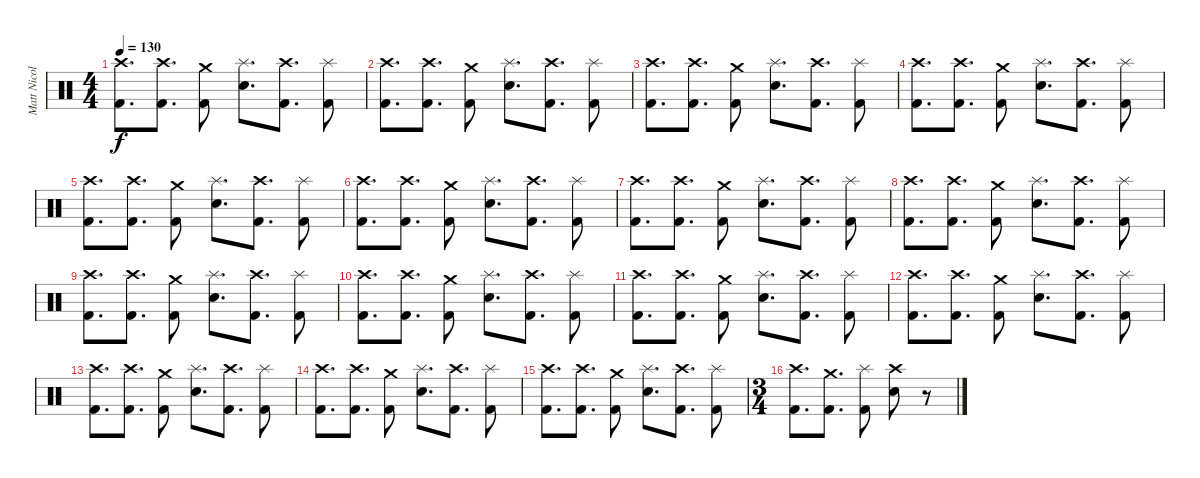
\track ("Matt Nicols" "Matt Nicol") {instrument percussion}
\staff {score}
\articulation defaults
\ts (4 4)
\tempo 130
\clef neutral
\ks c
("Crash high (hit)" "Kick (hit) 2").8{d dy f} ("Crash high (hit)" "Kick (hit) 2").8{d} ("Crash medium (hit)" "Kick (hit) 2").8 ("Splash (hit)" "Snare (hit) 2").8{d} ("Kick (hit) 2" "Crash high (hit)").8{d} ("Splash (hit)" "Kick (hit) 2").8 |
("Crash high (hit)" "Kick (hit) 2").8{d} ("Crash high (hit)" "Kick (hit) 2").8{d} ("Crash medium (hit)" "Kick (hit) 2").8 ("Splash (hit)" "Snare (hit) 2").8{d} ("Kick (hit) 2" "Crash high (hit)").8{d} ("Splash (hit)" "Kick (hit) 2").8 |
("Crash high (hit)" "Kick (hit) 2").8{d} ("Crash high (hit)" "Kick (hit) 2").8{d} ("Crash medium (hit)" "Kick (hit) 2").8 ("Splash (hit)" "Snare (hit) 2").8{d} ("Kick (hit) 2" "Crash high (hit)").8{d} ("Splash (hit)" "Kick (hit) 2").8 |
("Crash high (hit)" "Kick (hit) 2").8{d} ("Crash high (hit)" "Kick (hit) 2").8{d} ("Crash medium (hit)" "Kick (hit) 2").8 ("Splash (hit)" "Snare (hit) 2").8{d} ("Kick (hit) 2" "Crash high (hit)").8{d} ("Splash (hit)" "Kick (hit) 2").8 |
("Crash high (hit)" "Kick (hit) 2").8{d} ("Crash high (hit)" "Kick (hit) 2").8{d} ("Crash medium (hit)" "Kick (hit) 2").8 ("Splash (hit)" "Snare (hit) 2").8{d} ("Kick (hit) 2" "Crash high (hit)").8{d} ("Splash (hit)" "Kick (hit) 2").8 |
("Crash high (hit)" "Kick (hit) 2").8{d} ("Crash high (hit)" "Kick (hit) 2").8{d} ("Crash medium (hit)" "Kick (hit) 2").8 ("Splash (hit)" "Snare (hit) 2").8{d} ("Kick (hit) 2" "Crash high (hit)").8{d} ("Splash (hit)" "Kick (hit) 2").8 |
("Crash high (hit)" "Kick (hit) 2").8{d} ("Crash high (hit)" "Kick (hit) 2").8{d} ("Crash medium (hit)" "Kick (hit) 2").8 ("Splash (hit)" "Snare (hit) 2").8{d} ("Kick (hit) 2" "Crash high (hit)").8{d} ("Splash (hit)" "Kick (hit) 2").8 |
("Crash high (hit)" "Kick (hit) 2").8{d} ("Crash high (hit)" "Kick (hit) 2").8{d} ("Crash medium (hit)" "Kick (hit) 2").8 ("Splash (hit)" "Snare (hit) 2").8{d} ("Kick (hit) 2" "Crash high (hit)").8{d} ("Splash (hit)" "Kick (hit) 2").8 |
("Crash high (hit)" "Kick (hit) 2").8{d} ("Crash high (hit)" "Kick (hit) 2").8{d} ("Crash medium (hit)" "Kick (hit) 2").8 ("Splash (hit)" "Snare (hit) 2").8{d} ("Kick (hit) 2" "Crash high (hit)").8{d} ("Splash (hit)" "Kick (hit) 2").8 |
("Crash high (hit)" "Kick (hit) 2").8{d} ("Crash high (hit)" "Kick (hit) 2").8{d} ("Crash medium (hit)" "Kick (hit) 2").8 ("Splash (hit)" "Snare (hit) 2").8{d} ("Kick (hit) 2" "Crash high (hit)").8{d} ("Splash (hit)" "Kick (hit) 2").8 |
("Crash high (hit)" "Kick (hit) 2").8{d} ("Crash high (hit)" "Kick (hit) 2").8{d} ("Crash medium (hit)" "Kick (hit) 2").8 ("Splash (hit)" "Snare (hit) 2").8{d} ("Kick (hit) 2" "Crash high (hit)").8{d} ("Splash (hit)" "Kick (hit) 2").8 |
("Crash high (hit)" "Kick (hit) 2").8{d} ("Crash high (hit)" "Kick (hit) 2").8{d} ("Crash medium (hit)" "Kick (hit) 2").8 ("Splash (hit)" "Snare (hit) 2").8{d} ("Kick (hit) 2" "Crash high (hit)").8{d} ("Splash (hit)" "Kick (hit) 2").8 |
("Crash high (hit)" "Kick (hit) 2").8{d} ("Crash high (hit)" "Kick (hit) 2").8{d} ("Crash medium (hit)" "Kick (hit) 2").8 ("Splash (hit)" "Snare (hit) 2").8{d} ("Kick (hit) 2" "Crash high (hit)").8{d} ("Splash (hit)" "Kick (hit) 2").8 |
("Crash high (hit)" "Kick (hit) 2").8{d} ("Crash high (hit)" "Kick (hit) 2").8{d} ("Crash medium (hit)" "Kick (hit) 2").8 ("Splash (hit)" "Snare (hit) 2").8{d} ("Kick (hit) 2" "Crash high (hit)").8{d} ("Splash (hit)" "Kick (hit) 2").8 |
("Crash high (hit)" "Kick (hit) 2").8{d} ("Crash high (hit)" "Kick (hit) 2").8{d} ("Crash medium (hit)" "Kick (hit) 2").8 ("Splash (hit)" "Snare (hit) 2").8{d} ("Kick (hit) 2" "Crash high (hit)").8{d} ("Splash (hit)" "Kick (hit) 2").8 |
\ts (3 4)
("Crash high (hit)" "Kick (hit) 2").8{d} ("Crash medium (hit)" "Kick (hit) 2").8{d} ("Splash (hit)" "Kick (hit) 2").8 ("Crash high (hit)" "Snare (hit) 2").8 r.8
